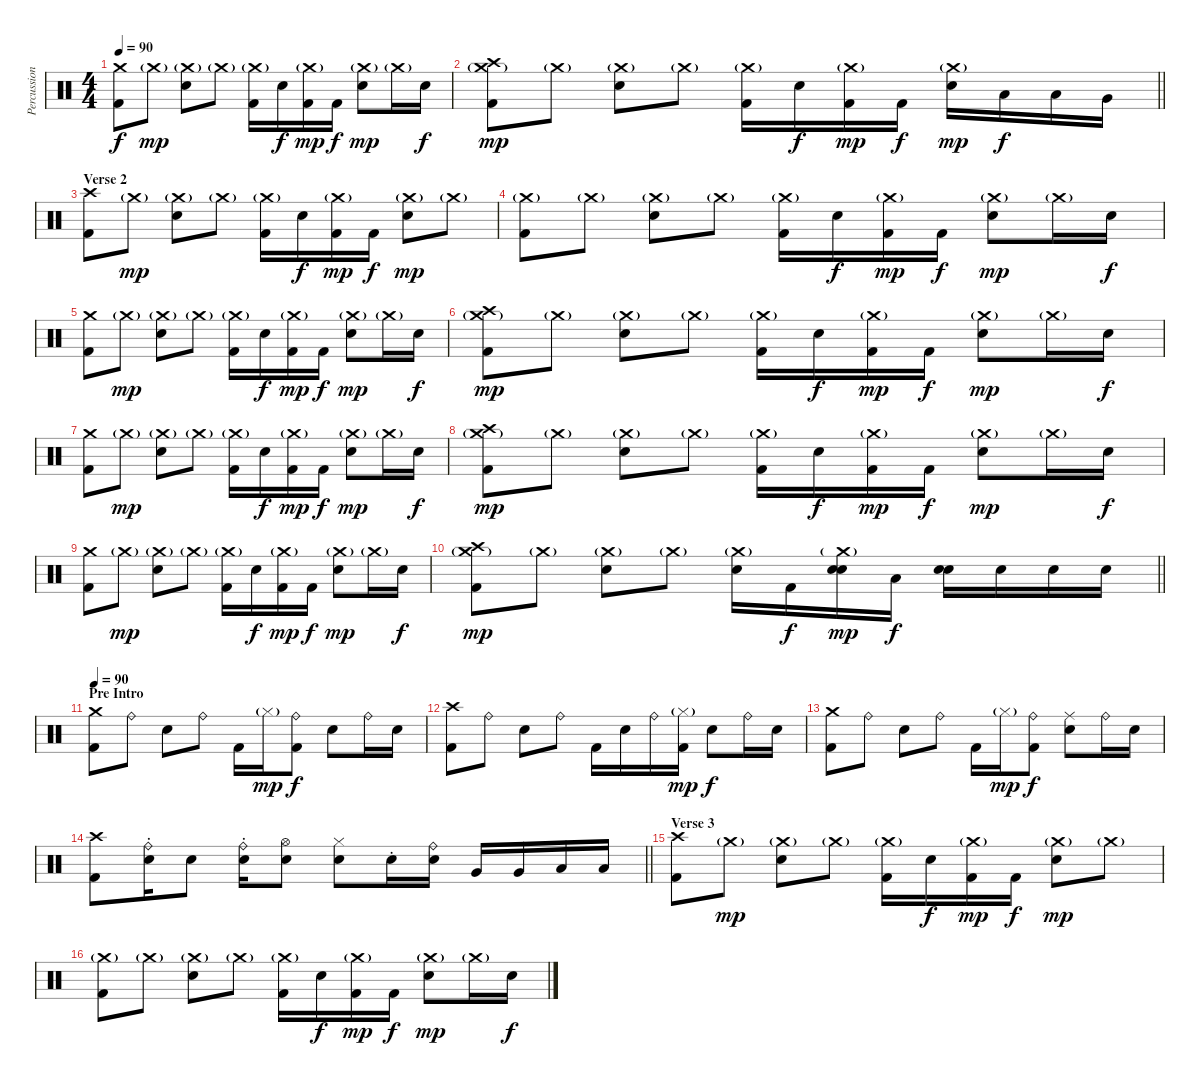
\track ("Percussion" "Percussion") {instrument percussion}
\staff {score}
\articulation defaults
\ts (4 4)
\tempo 90
\clef neutral
\ks c
("Crash medium (hit)" "Kick (hit) 2").8{dy f} "Crash medium (hit)"{g}.8{dy mp} ("Crash medium (hit)"{g} "Electric Snare (hit)").8 "Crash medium (hit)"{g}.8 ("Crash medium (hit)"{g} "Kick (hit) 2").16 "Electric Snare (hit)".16{dy f} ("Crash medium (hit)"{g} "Kick (hit) 2").16{dy mp} "Kick (hit) 2".16{dy f} ("Crash medium (hit)"{g} "Electric Snare (hit)").8{dy mp} "Crash medium (hit)"{g}.16 "Electric Snare (hit)".16{dy f} |
\barLineRight lightlight
("Crash medium (hit)"{g} "Crash high (hit)" "Kick (hit) 2").8{dy mp} "Crash medium (hit)"{g}.8 ("Crash medium (hit)"{g} "Electric Snare (hit)").8 "Crash medium (hit)"{g}.8 ("Crash medium (hit)"{g} "Kick (hit) 2").16 "Electric Snare (hit)".16{dy f} ("Crash medium (hit)"{g} "Kick (hit) 2").16{dy mp} "Kick (hit) 2".16{dy f} ("Crash medium (hit)"{g} "Electric Snare (hit)").16{dy mp} "Low Tom (hit)".16{dy f} "Low Tom (hit)".16 "Very Low Tom (hit)".16 |
\section ("" "Verse 2")
("Crash high (hit)" "Kick (hit) 2").8 "Crash medium (hit)"{g}.8{dy mp} ("Crash medium (hit)"{g} "Electric Snare (hit)").8 "Crash medium (hit)"{g}.8 ("Crash medium (hit)"{g} "Kick (hit) 2").16 "Electric Snare (hit)".16{dy f} ("Crash medium (hit)"{g} "Kick (hit) 2").16{dy mp} "Kick (hit) 2".16{dy f} ("Crash medium (hit)"{g} "Electric Snare (hit)").8{dy mp} "Crash medium (hit)"{g}.8 |
("Crash medium (hit)"{g} "Kick (hit) 2").8 "Crash medium (hit)"{g}.8 ("Crash medium (hit)"{g} "Electric Snare (hit)").8 "Crash medium (hit)"{g}.8 ("Crash medium (hit)"{g} "Kick (hit) 2").16 "Electric Snare (hit)".16{dy f} ("Crash medium (hit)"{g} "Kick (hit) 2").16{dy mp} "Kick (hit) 2".16{dy f} ("Crash medium (hit)"{g} "Electric Snare (hit)").8{dy mp} "Crash medium (hit)"{g}.16 "Electric Snare (hit)".16{dy f} |
("Crash medium (hit)" "Kick (hit) 2").8 "Crash medium (hit)"{g}.8{dy mp} ("Crash medium (hit)"{g} "Electric Snare (hit)").8 "Crash medium (hit)"{g}.8 ("Crash medium (hit)"{g} "Kick (hit) 2").16 "Electric Snare (hit)".16{dy f} ("Crash medium (hit)"{g} "Kick (hit) 2").16{dy mp} "Kick (hit) 2".16{dy f} ("Crash medium (hit)"{g} "Electric Snare (hit)").8{dy mp} "Crash medium (hit)"{g}.16 "Electric Snare (hit)".16{dy f} |
("Crash medium (hit)"{g} "Crash high (hit)" "Kick (hit) 2").8{dy mp} "Crash medium (hit)"{g}.8 ("Crash medium (hit)"{g} "Electric Snare (hit)").8 "Crash medium (hit)"{g}.8 ("Crash medium (hit)"{g} "Kick (hit) 2").16 "Electric Snare (hit)".16{dy f} ("Crash medium (hit)"{g} "Kick (hit) 2").16{dy mp} "Kick (hit) 2".16{dy f} ("Crash medium (hit)"{g} "Electric Snare (hit)").8{dy mp} "Crash medium (hit)"{g}.16 "Electric Snare (hit)".16{dy f} |
("Crash medium (hit)" "Kick (hit) 2").8 "Crash medium (hit)"{g}.8{dy mp} ("Crash medium (hit)"{g} "Electric Snare (hit)").8 "Crash medium (hit)"{g}.8 ("Crash medium (hit)"{g} "Kick (hit) 2").16 "Electric Snare (hit)".16{dy f} ("Crash medium (hit)"{g} "Kick (hit) 2").16{dy mp} "Kick (hit) 2".16{dy f} ("Crash medium (hit)"{g} "Electric Snare (hit)").8{dy mp} "Crash medium (hit)"{g}.16 "Electric Snare (hit)".16{dy f} |
("Crash medium (hit)"{g} "Crash high (hit)" "Kick (hit) 2").8{dy mp} "Crash medium (hit)"{g}.8 ("Crash medium (hit)"{g} "Electric Snare (hit)").8 "Crash medium (hit)"{g}.8 ("Crash medium (hit)"{g} "Kick (hit) 2").16 "Electric Snare (hit)".16{dy f} ("Crash medium (hit)"{g} "Kick (hit) 2").16{dy mp} "Kick (hit) 2".16{dy f} ("Crash medium (hit)"{g} "Electric Snare (hit)").8{dy mp} "Crash medium (hit)"{g}.16 "Electric Snare (hit)".16{dy f} |
("Crash medium (hit)" "Kick (hit) 2").8 "Crash medium (hit)"{g}.8{dy mp} ("Crash medium (hit)"{g} "Electric Snare (hit)").8 "Crash medium (hit)"{g}.8 ("Crash medium (hit)"{g} "Kick (hit) 2").16 "Electric Snare (hit)".16{dy f} ("Crash medium (hit)"{g} "Kick (hit) 2").16{dy mp} "Kick (hit) 2".16{dy f} ("Crash medium (hit)"{g} "Electric Snare (hit)").8{dy mp} "Crash medium (hit)"{g}.16 "Electric Snare (hit)".16{dy f} |
\barLineRight lightlight
("Crash medium (hit)"{g} "Crash high (hit)" "Kick (hit) 2").8{dy mp} "Crash medium (hit)"{g}.8 ("Crash medium (hit)"{g} "Electric Snare (hit)").8 "Crash medium (hit)"{g}.8 ("Crash medium (hit)"{g} "Electric Snare (hit)").16 "Kick (hit) 2".16{dy f} ("Crash medium (hit)"{g} "Electric Snare (hit)" "Electric Snare (hit)").16{bd 120 dy mp} "Low Tom (hit)".16{dy f} ("Electric Snare (hit)" "Electric Snare (hit)").16{bd 120} "Electric Snare (hit)".16 "Electric Snare (hit)".16 "Electric Snare (hit)".16 |
\section ("" "Pre Intro")
\tempo 90
("Crash medium (hit)" "Kick (hit) 2").8 "Ride (bell)".8 "Electric Snare (hit)".8 "Ride (bell)".8 "Kick (hit) 2".16 "Hi-Hat (closed)"{g}.16{dy mp} ("Ride (bell)" "Kick (hit) 2").8{dy f} "Electric Snare (hit)".8 "Ride (bell)".16 "Electric Snare (hit)".16 |
("Crash high (hit)" "Kick (hit) 2").8 "Ride (bell)".8 "Electric Snare (hit)".8 "Ride (bell)".8 "Kick (hit) 2".16 "Electric Snare (hit)".16 "Ride (bell)".16 ("Hi-Hat (closed)"{g} "Kick (hit) 2").16{dy mp} "Electric Snare (hit)".8{dy f} "Ride (bell)".16 "Electric Snare (hit)".16 |
("Crash medium (hit)" "Kick (hit) 2").8 "Ride (bell)".8 "Electric Snare (hit)".8 "Ride (bell)".8 "Kick (hit) 2".16 "Hi-Hat (closed)"{g}.16{dy mp} ("Ride (bell)" "Kick (hit) 2").8{dy f} ("Ride (middle)" "Electric Snare (hit)").8 "Ride (bell)".16 "Electric Snare (hit)".16 |
\barLineRight lightlight
("Crash high (hit)" "Kick (hit) 2").8 ("Ride (bell)" "Electric Snare (hit)"{st}).16 "Electric Snare (hit)".8 ("Ride (bell)" "Electric Snare (hit)"{st}).16 ("Electric Snare (hit)" "Hi-Hat (open)").8 ("Hi-Hat (closed)" "Electric Snare (hit)").8 "Electric Snare (hit)"{st}.16 ("Ride (bell)" "Electric Snare (hit)").16 "Very Low Tom (hit)".16 "Very Low Tom (hit)".16 "Low Tom (hit)".16 "Low Floor Tom (hit)".16 |
\section ("" "Verse 3")
("Crash high (hit)" "Kick (hit) 2").8 "Crash medium (hit)"{g}.8{dy mp} ("Crash medium (hit)"{g} "Electric Snare (hit)").8 "Crash medium (hit)"{g}.8 ("Crash medium (hit)"{g} "Kick (hit) 2").16 "Electric Snare (hit)".16{dy f} ("Crash medium (hit)"{g} "Kick (hit) 2").16{dy mp} "Kick (hit) 2".16{dy f} ("Crash medium (hit)"{g} "Electric Snare (hit)").8{dy mp} "Crash medium (hit)"{g}.8 |
("Crash medium (hit)"{g} "Kick (hit) 2").8 "Crash medium (hit)"{g}.8 ("Crash medium (hit)"{g} "Electric Snare (hit)").8 "Crash medium (hit)"{g}.8 ("Crash medium (hit)"{g} "Kick (hit) 2").16 "Electric Snare (hit)".16{dy f} ("Crash medium (hit)"{g} "Kick (hit) 2").16{dy mp} "Kick (hit) 2".16{dy f} ("Crash medium (hit)"{g} "Electric Snare (hit)").8{dy mp} "Crash medium (hit)"{g}.16 "Electric Snare (hit)".16{dy f}
